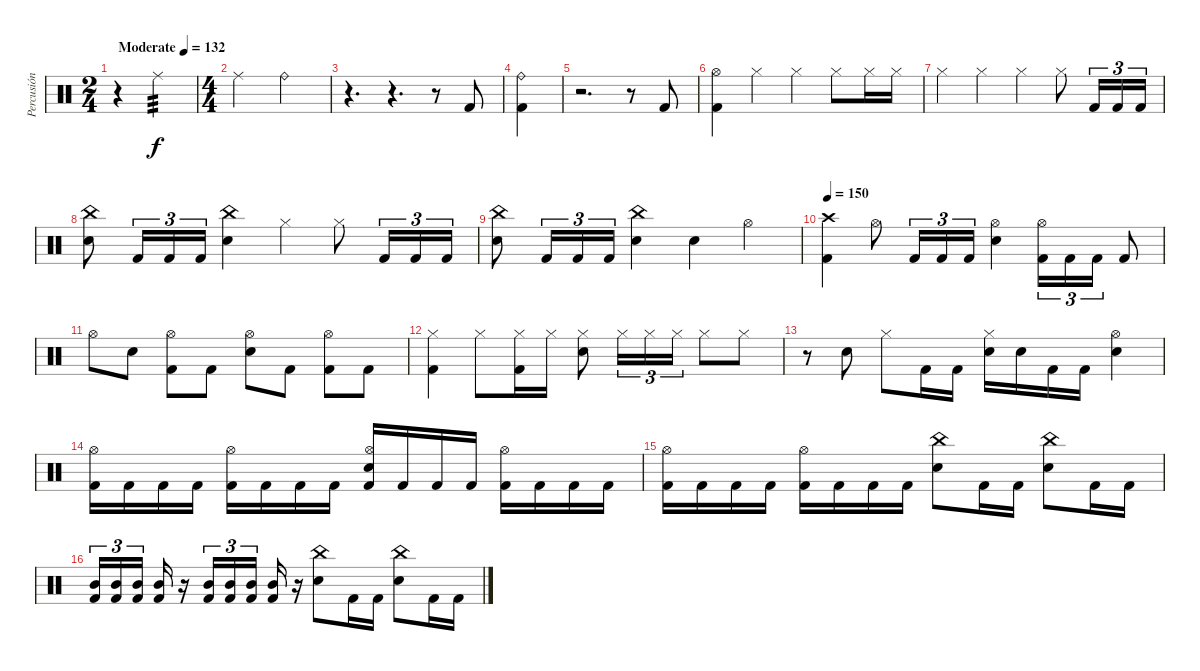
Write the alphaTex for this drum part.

\track ("Percusión" "Percusión") {instrument percussion}
\staff
\articulation defaults
\ts (2 4)
\section ("" "")
\tempo (132 "Moderate")
\clef neutral
\ks c
r.4{dy f} "Ride (middle)".4{tp 3} |
\ts (4 4)
"Ride (middle)".2 "Ride (bell)".2 |
r.4{d} r.4{d} r.8 "Kick (hit) 2".8 |
("Kick (hit) 2" "Ride (bell)").4 |
r.2{d} r.8 "Kick (hit) 2".8 |
("Kick (hit) 2" "Hi-Hat (open)").4 "Hi-Hat (closed)".4 "Hi-Hat (closed)".4 "Hi-Hat (closed)".8 "Hi-Hat (closed)".16 "Hi-Hat (closed)".16 |
"Hi-Hat (closed)".4 "Hi-Hat (closed)".4 "Hi-Hat (closed)".4 "Hi-Hat (closed)".8 "Kick (hit) 2".16{tu (3 2)} "Kick (hit) 2".16{tu (3 2)} "Kick (hit) 2".16{tu (3 2)} |
("Electric Snare (hit)" "China (hit)").8 "Kick (hit) 2".16{tu (3 2)} "Kick (hit) 2".16{tu (3 2)} "Kick (hit) 2".16{tu (3 2)} ("Electric Snare (hit)" "China (hit)").4 "Hi-Hat (closed)".4 "Hi-Hat (closed)".8 "Kick (hit) 2".16{tu (3 2)} "Kick (hit) 2".16{tu (3 2)} "Kick (hit) 2".16{tu (3 2)} |
("Electric Snare (hit)" "China (hit)").8 "Kick (hit) 2".16{tu (3 2)} "Kick (hit) 2".16{tu (3 2)} "Kick (hit) 2".16{tu (3 2)} ("Electric Snare (hit)" "China (hit)").4 "Electric Snare (hit)".4 "Hi-Hat (open)".4 |
\tempo 150
("Kick (hit) 2" "Crash high (hit)").4 "Hi-Hat (open)".8 "Kick (hit) 2".16{tu (3 2)} "Kick (hit) 2".16{tu (3 2)} "Kick (hit) 2".16{tu (3 2)} ("Hi-Hat (open)" "Electric Snare (hit)").4 ("Kick (hit) 2" "Hi-Hat (open)").16{tu (3 2)} "Kick (hit) 2".16{tu (3 2)} "Kick (hit) 2".16{tu (3 2)} "Kick (hit) 2".8 |
"Hi-Hat (open)".8 "Electric Snare (hit)".8 ("Kick (hit) 2" "Hi-Hat (open)").8 "Kick (hit) 2".8 ("Hi-Hat (open)" "Electric Snare (hit)").8 "Kick (hit) 2".8 ("Kick (hit) 2" "Hi-Hat (open)").8 "Kick (hit) 2".8 |
("Kick (hit) 2" "Hi-Hat (closed)").4 "Hi-Hat (closed)".8 ("Kick (hit) 2" "Hi-Hat (closed)").16 "Hi-Hat (closed)".16 ("Hi-Hat (closed)" "Electric Snare (hit)").8 "Hi-Hat (closed)".16{tu (3 2)} "Hi-Hat (closed)".16{tu (3 2)} "Hi-Hat (closed)".16{tu (3 2)} "Hi-Hat (closed)".8 "Hi-Hat (closed)".8 |
r.8 "Electric Snare (hit)".8 "Hi-Hat (closed)".8 "Kick (hit) 2".16 "Kick (hit) 2".16 ("Hi-Hat (closed)" "Electric Snare (hit)").16 "Electric Snare (hit)".16 "Kick (hit) 2".16 "Kick (hit) 2".16 ("Hi-Hat (open)" "Electric Snare (hit)").4 |
("Kick (hit) 2" "Hi-Hat (open)").16 "Kick (hit) 2".16 "Kick (hit) 2".16 "Kick (hit) 2".16 ("Kick (hit) 2" "Hi-Hat (open)").16 "Kick (hit) 2".16 "Kick (hit) 2".16 "Kick (hit) 2".16 ("Kick (hit) 2" "Hi-Hat (open)" "Electric Snare (hit)").16 "Kick (hit) 2".16 "Kick (hit) 2".16 "Kick (hit) 2".16 ("Kick (hit) 2" "Hi-Hat (open)").16 "Kick (hit) 2".16 "Kick (hit) 2".16 "Kick (hit) 2".16 |
("Kick (hit) 2" "Hi-Hat (open)").16 "Kick (hit) 2".16 "Kick (hit) 2".16 "Kick (hit) 2".16 ("Kick (hit) 2" "Hi-Hat (open)").16 "Kick (hit) 2".16 "Kick (hit) 2".16 "Kick (hit) 2".16 ("China (hit)" "Electric Snare (hit)").8 "Kick (hit) 2".16 "Kick (hit) 2".16 ("China (hit)" "Electric Snare (hit)").8 "Kick (hit) 2".16 "Kick (hit) 2".16 |
("Kick (hit) 2" "Mid Tom (hit)").16{tu (3 2)} ("Kick (hit) 2" "Mid Tom (hit)").16{tu (3 2)} ("Kick (hit) 2" "Mid Tom (hit)").16{tu (3 2) beam splitsecondary} ("Kick (hit) 2" "Mid Tom (hit)").16 r.16 ("Kick (hit) 2" "Mid Tom (hit)").16{tu (3 2)} ("Kick (hit) 2" "Mid Tom (hit)").16{tu (3 2)} ("Kick (hit) 2" "Mid Tom (hit)").16{tu (3 2) beam splitsecondary} ("Kick (hit) 2" "Mid Tom (hit)").16 r.16 ("China (hit)" "Electric Snare (hit)").8 "Kick (hit) 2".16 "Kick (hit) 2".16 ("China (hit)" "Electric Snare (hit)").8 "Kick (hit) 2".16 "Kick (hit) 2".16
